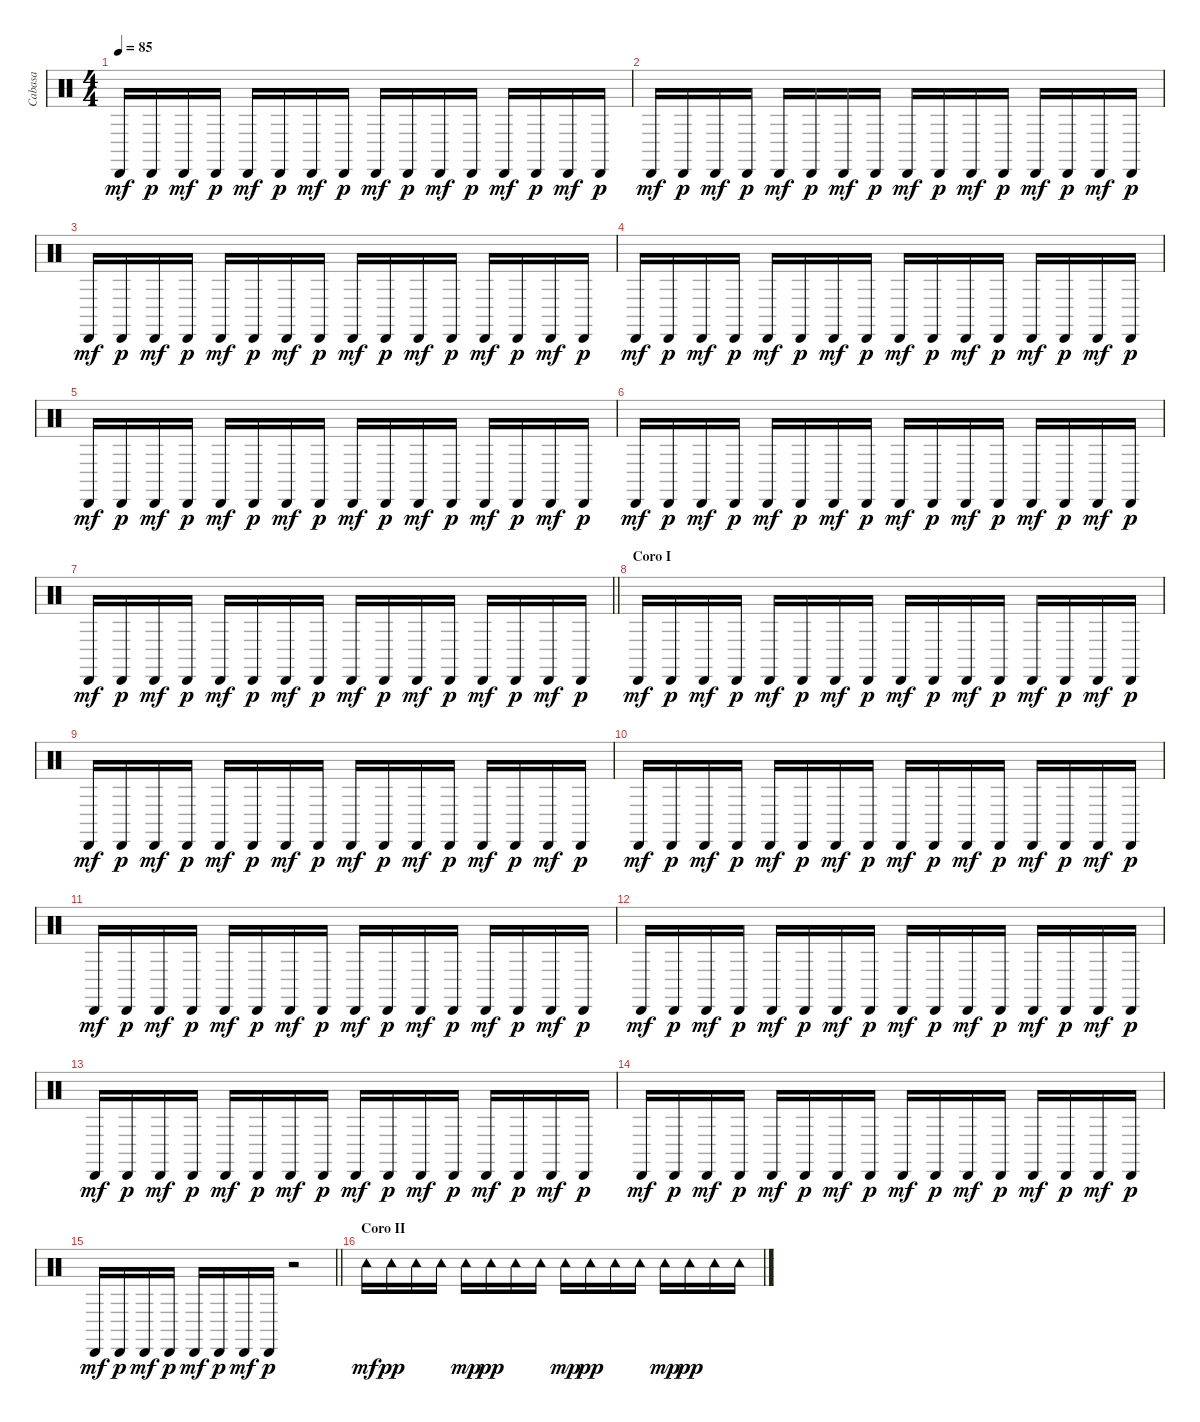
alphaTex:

\track ("Cabasa" "Cabasa") {instrument percussion}
\staff {score}
\articulation defaults
\ts (4 4)
\tempo 85
\clef neutral
\ks c "Cabasa (hit)".16{dy mf} "Cabasa (hit)".16{dy p} "Cabasa (hit)".16{dy mf} "Cabasa (hit)".16{dy p} "Cabasa (hit)".16{dy mf} "Cabasa (hit)".16{dy p} "Cabasa (hit)".16{dy mf} "Cabasa (hit)".16{dy p} "Cabasa (hit)".16{dy mf} "Cabasa (hit)".16{dy p} "Cabasa (hit)".16{dy mf} "Cabasa (hit)".16{dy p} "Cabasa (hit)".16{dy mf} "Cabasa (hit)".16{dy p} "Cabasa (hit)".16{dy mf} "Cabasa (hit)".16{dy p}
|
"Cabasa (hit)".16{dy mf} "Cabasa (hit)".16{dy p} "Cabasa (hit)".16{dy mf} "Cabasa (hit)".16{dy p} "Cabasa (hit)".16{dy mf} "Cabasa (hit)".16{dy p} "Cabasa (hit)".16{dy mf} "Cabasa (hit)".16{dy p} "Cabasa (hit)".16{dy mf} "Cabasa (hit)".16{dy p} "Cabasa (hit)".16{dy mf} "Cabasa (hit)".16{dy p} "Cabasa (hit)".16{dy mf} "Cabasa (hit)".16{dy p} "Cabasa (hit)".16{dy mf} "Cabasa (hit)".16{dy p} |
"Cabasa (hit)".16{dy mf} "Cabasa (hit)".16{dy p} "Cabasa (hit)".16{dy mf} "Cabasa (hit)".16{dy p} "Cabasa (hit)".16{dy mf} "Cabasa (hit)".16{dy p} "Cabasa (hit)".16{dy mf} "Cabasa (hit)".16{dy p} "Cabasa (hit)".16{dy mf} "Cabasa (hit)".16{dy p} "Cabasa (hit)".16{dy mf} "Cabasa (hit)".16{dy p} "Cabasa (hit)".16{dy mf} "Cabasa (hit)".16{dy p} "Cabasa (hit)".16{dy mf} "Cabasa (hit)".16{dy p} |
"Cabasa (hit)".16{dy mf} "Cabasa (hit)".16{dy p} "Cabasa (hit)".16{dy mf} "Cabasa (hit)".16{dy p} "Cabasa (hit)".16{dy mf} "Cabasa (hit)".16{dy p} "Cabasa (hit)".16{dy mf} "Cabasa (hit)".16{dy p} "Cabasa (hit)".16{dy mf} "Cabasa (hit)".16{dy p} "Cabasa (hit)".16{dy mf} "Cabasa (hit)".16{dy p} "Cabasa (hit)".16{dy mf} "Cabasa (hit)".16{dy p} "Cabasa (hit)".16{dy mf} "Cabasa (hit)".16{dy p} |
"Cabasa (hit)".16{dy mf} "Cabasa (hit)".16{dy p} "Cabasa (hit)".16{dy mf} "Cabasa (hit)".16{dy p} "Cabasa (hit)".16{dy mf} "Cabasa (hit)".16{dy p} "Cabasa (hit)".16{dy mf} "Cabasa (hit)".16{dy p} "Cabasa (hit)".16{dy mf} "Cabasa (hit)".16{dy p} "Cabasa (hit)".16{dy mf} "Cabasa (hit)".16{dy p} "Cabasa (hit)".16{dy mf} "Cabasa (hit)".16{dy p} "Cabasa (hit)".16{dy mf} "Cabasa (hit)".16{dy p} |
"Cabasa (hit)".16{dy mf} "Cabasa (hit)".16{dy p} "Cabasa (hit)".16{dy mf} "Cabasa (hit)".16{dy p} "Cabasa (hit)".16{dy mf} "Cabasa (hit)".16{dy p} "Cabasa (hit)".16{dy mf} "Cabasa (hit)".16{dy p} "Cabasa (hit)".16{dy mf} "Cabasa (hit)".16{dy p} "Cabasa (hit)".16{dy mf} "Cabasa (hit)".16{dy p} "Cabasa (hit)".16{dy mf} "Cabasa (hit)".16{dy p} "Cabasa (hit)".16{dy mf} "Cabasa (hit)".16{dy p} |
\barLineRight lightlight "Cabasa (hit)".16{dy mf} "Cabasa (hit)".16{dy p} "Cabasa (hit)".16{dy mf} "Cabasa (hit)".16{dy p} "Cabasa (hit)".16{dy mf} "Cabasa (hit)".16{dy p} "Cabasa (hit)".16{dy mf} "Cabasa (hit)".16{dy p} "Cabasa (hit)".16{dy mf} "Cabasa (hit)".16{dy p} "Cabasa (hit)".16{dy mf} "Cabasa (hit)".16{dy p} "Cabasa (hit)".16{dy mf} "Cabasa (hit)".16{dy p} "Cabasa (hit)".16{dy mf} "Cabasa (hit)".16{dy p}
|
\section ("" "Coro I")
"Cabasa (hit)".16{dy mf} "Cabasa (hit)".16{dy p} "Cabasa (hit)".16{dy mf} "Cabasa (hit)".16{dy p} "Cabasa (hit)".16{dy mf} "Cabasa (hit)".16{dy p} "Cabasa (hit)".16{dy mf} "Cabasa (hit)".16{dy p} "Cabasa (hit)".16{dy mf} "Cabasa (hit)".16{dy p} "Cabasa (hit)".16{dy mf} "Cabasa (hit)".16{dy p} "Cabasa (hit)".16{dy mf} "Cabasa (hit)".16{dy p} "Cabasa (hit)".16{dy mf} "Cabasa (hit)".16{dy p} |
"Cabasa (hit)".16{dy mf} "Cabasa (hit)".16{dy p} "Cabasa (hit)".16{dy mf} "Cabasa (hit)".16{dy p} "Cabasa (hit)".16{dy mf} "Cabasa (hit)".16{dy p} "Cabasa (hit)".16{dy mf} "Cabasa (hit)".16{dy p} "Cabasa (hit)".16{dy mf} "Cabasa (hit)".16{dy p} "Cabasa (hit)".16{dy mf} "Cabasa (hit)".16{dy p} "Cabasa (hit)".16{dy mf} "Cabasa (hit)".16{dy p} "Cabasa (hit)".16{dy mf} "Cabasa (hit)".16{dy p} |
"Cabasa (hit)".16{dy mf} "Cabasa (hit)".16{dy p} "Cabasa (hit)".16{dy mf} "Cabasa (hit)".16{dy p} "Cabasa (hit)".16{dy mf} "Cabasa (hit)".16{dy p} "Cabasa (hit)".16{dy mf} "Cabasa (hit)".16{dy p} "Cabasa (hit)".16{dy mf} "Cabasa (hit)".16{dy p} "Cabasa (hit)".16{dy mf} "Cabasa (hit)".16{dy p} "Cabasa (hit)".16{dy mf} "Cabasa (hit)".16{dy p} "Cabasa (hit)".16{dy mf} "Cabasa (hit)".16{dy p} |
"Cabasa (hit)".16{dy mf} "Cabasa (hit)".16{dy p} "Cabasa (hit)".16{dy mf} "Cabasa (hit)".16{dy p} "Cabasa (hit)".16{dy mf} "Cabasa (hit)".16{dy p} "Cabasa (hit)".16{dy mf} "Cabasa (hit)".16{dy p} "Cabasa (hit)".16{dy mf} "Cabasa (hit)".16{dy p} "Cabasa (hit)".16{dy mf} "Cabasa (hit)".16{dy p} "Cabasa (hit)".16{dy mf} "Cabasa (hit)".16{dy p} "Cabasa (hit)".16{dy mf} "Cabasa (hit)".16{dy p} |
"Cabasa (hit)".16{dy mf} "Cabasa (hit)".16{dy p} "Cabasa (hit)".16{dy mf} "Cabasa (hit)".16{dy p} "Cabasa (hit)".16{dy mf} "Cabasa (hit)".16{dy p} "Cabasa (hit)".16{dy mf} "Cabasa (hit)".16{dy p} "Cabasa (hit)".16{dy mf} "Cabasa (hit)".16{dy p} "Cabasa (hit)".16{dy mf} "Cabasa (hit)".16{dy p} "Cabasa (hit)".16{dy mf} "Cabasa (hit)".16{dy p} "Cabasa (hit)".16{dy mf} "Cabasa (hit)".16{dy p} |
"Cabasa (hit)".16{dy mf} "Cabasa (hit)".16{dy p} "Cabasa (hit)".16{dy mf} "Cabasa (hit)".16{dy p} "Cabasa (hit)".16{dy mf} "Cabasa (hit)".16{dy p} "Cabasa (hit)".16{dy mf} "Cabasa (hit)".16{dy p} "Cabasa (hit)".16{dy mf} "Cabasa (hit)".16{dy p} "Cabasa (hit)".16{dy mf} "Cabasa (hit)".16{dy p} "Cabasa (hit)".16{dy mf} "Cabasa (hit)".16{dy p} "Cabasa (hit)".16{dy mf} "Cabasa (hit)".16{dy p} |
"Cabasa (hit)".16{dy mf} "Cabasa (hit)".16{dy p} "Cabasa (hit)".16{dy mf} "Cabasa (hit)".16{dy p} "Cabasa (hit)".16{dy mf} "Cabasa (hit)".16{dy p} "Cabasa (hit)".16{dy mf} "Cabasa (hit)".16{dy p} "Cabasa (hit)".16{dy mf} "Cabasa (hit)".16{dy p} "Cabasa (hit)".16{dy mf} "Cabasa (hit)".16{dy p} "Cabasa (hit)".16{dy mf} "Cabasa (hit)".16{dy p} "Cabasa (hit)".16{dy mf} "Cabasa (hit)".16{dy p} |
\barLineRight lightlight "Cabasa (hit)".16{dy mf} "Cabasa (hit)".16{dy p} "Cabasa (hit)".16{dy mf} "Cabasa (hit)".16{dy p} "Cabasa (hit)".16{dy mf} "Cabasa (hit)".16{dy p} "Cabasa (hit)".16{dy mf} "Cabasa (hit)".16{dy p}
r.2 |
\section ("" "Coro II")
"Tambourine (hit)".16{dy mf} "Tambourine (hit)".16{dy pp} "Tambourine (hit)".16 "Tambourine (hit)".16 "Tambourine (hit)".16{dy mp} "Tambourine (hit)".16{dy pp} "Tambourine (hit)".16 "Tambourine (hit)".16 "Tambourine (hit)".16{dy mp} "Tambourine (hit)".16{dy pp} "Tambourine (hit)".16 "Tambourine (hit)".16 "Tambourine (hit)".16{dy mp} "Tambourine (hit)".16{dy pp} "Tambourine (hit)".16 "Tambourine (hit)".16
